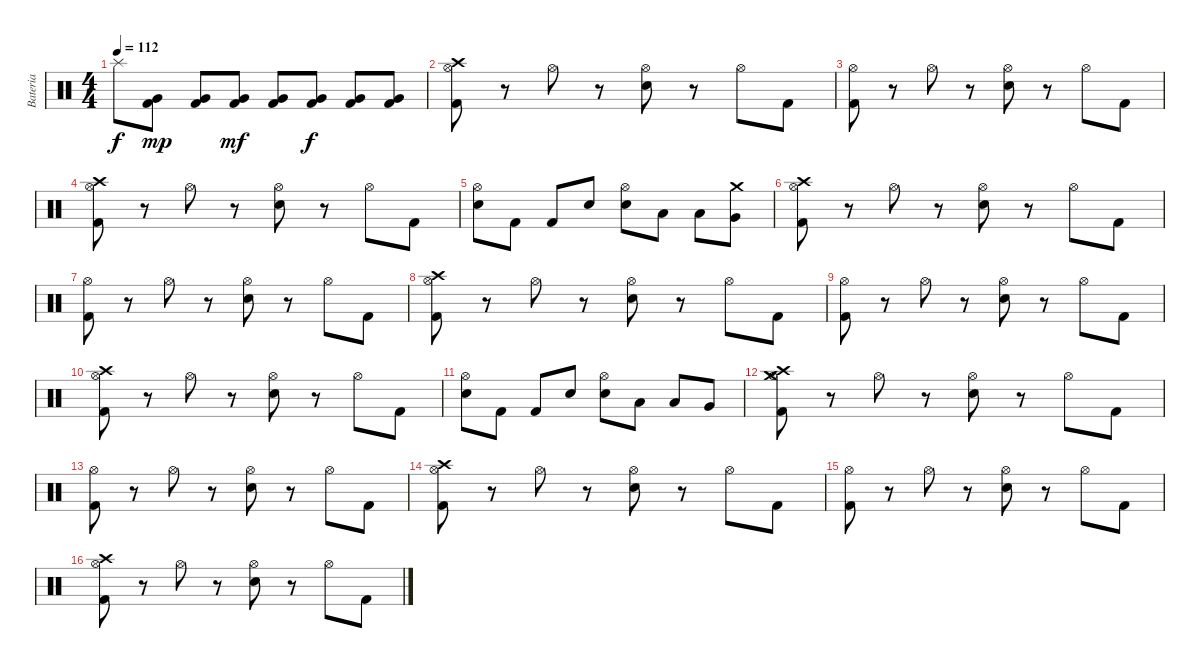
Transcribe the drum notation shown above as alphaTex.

\track ("Bateria" "Bateria") {instrument percussion}
\staff {score}
\articulation defaults
\ts (4 4)
\tempo 112
\clef neutral
\ks c "Splash (hit)".8{dy f}
("Very Low Tom (hit)" "Kick (hit) 2").8{dy mp} ("Very Low Tom (hit)" "Kick (hit) 2").8 ("Very Low Tom (hit)" "Kick (hit) 2").8{dy mf} ("Very Low Tom (hit)" "Kick (hit) 2").8 ("Very Low Tom (hit)" "Kick (hit) 2").8{dy f} ("Very Low Tom (hit)" "Kick (hit) 2").8 ("Very Low Tom (hit)" "Kick (hit) 2").8 |
("Hi-Hat (open)" "Kick (hit) 2" "Crash high (hit)").8 r.8 "Hi-Hat (open)".8 r.8 ("Hi-Hat (open)" "Snare (hit) 2").8 r.8 "Hi-Hat (open)".8 "Kick (hit) 2".8 |
("Hi-Hat (open)" "Kick (hit) 2").8 r.8 "Hi-Hat (open)".8 r.8 ("Hi-Hat (open)" "Snare (hit) 2").8 r.8 "Hi-Hat (open)".8 "Kick (hit) 2".8 |
("Hi-Hat (open)" "Kick (hit) 2" "Crash high (hit)").8 r.8 "Hi-Hat (open)".8 r.8 ("Hi-Hat (open)" "Snare (hit) 2").8 r.8 "Hi-Hat (open)".8 "Kick (hit) 2".8 |
("Hi-Hat (open)" "Snare (hit) 2").8 "Kick (hit) 2".8 "Kick (hit) 2".8 "Snare (hit) 2".8 ("Hi-Hat (open)" "Snare (hit) 2").8 "Low Tom (hit)".8 "Low Tom (hit)".8 ("Very Low Tom (hit)" "Crash medium (hit)").8 |
("Hi-Hat (open)" "Kick (hit) 2" "Crash high (hit)").8 r.8 "Hi-Hat (open)".8 r.8 ("Hi-Hat (open)" "Snare (hit) 2").8 r.8 "Hi-Hat (open)".8 "Kick (hit) 2".8 |
("Hi-Hat (open)" "Kick (hit) 2").8 r.8 "Hi-Hat (open)".8 r.8 ("Hi-Hat (open)" "Snare (hit) 2").8 r.8 "Hi-Hat (open)".8 "Kick (hit) 2".8 |
("Hi-Hat (open)" "Kick (hit) 2" "Crash high (hit)").8 r.8 "Hi-Hat (open)".8 r.8 ("Hi-Hat (open)" "Snare (hit) 2").8 r.8 "Hi-Hat (open)".8 "Kick (hit) 2".8 |
("Hi-Hat (open)" "Kick (hit) 2").8 r.8 "Hi-Hat (open)".8 r.8 ("Hi-Hat (open)" "Snare (hit) 2").8 r.8 "Hi-Hat (open)".8 "Kick (hit) 2".8 |
("Hi-Hat (open)" "Kick (hit) 2" "Crash high (hit)").8 r.8 "Hi-Hat (open)".8 r.8 ("Hi-Hat (open)" "Snare (hit) 2").8 r.8 "Hi-Hat (open)".8 "Kick (hit) 2".8 |
("Hi-Hat (open)" "Snare (hit) 2").8 "Kick (hit) 2".8 "Kick (hit) 2".8 "Snare (hit) 2".8 ("Hi-Hat (open)" "Snare (hit) 2").8 "Low Tom (hit)".8 "Low Tom (hit)".8 "Very Low Tom (hit)".8 |
("Hi-Hat (open)" "Kick (hit) 2" "Crash medium (hit)" "Crash high (hit)").8 r.8 "Hi-Hat (open)".8 r.8 ("Hi-Hat (open)" "Snare (hit) 2").8 r.8 "Hi-Hat (open)".8 "Kick (hit) 2".8 |
("Hi-Hat (open)" "Kick (hit) 2").8 r.8 "Hi-Hat (open)".8 r.8 ("Hi-Hat (open)" "Snare (hit) 2").8 r.8 "Hi-Hat (open)".8 "Kick (hit) 2".8 |
("Hi-Hat (open)" "Kick (hit) 2" "Crash high (hit)").8 r.8 "Hi-Hat (open)".8 r.8 ("Hi-Hat (open)" "Snare (hit) 2").8 r.8 "Hi-Hat (open)".8 "Kick (hit) 2".8 |
("Hi-Hat (open)" "Kick (hit) 2").8 r.8 "Hi-Hat (open)".8 r.8 ("Hi-Hat (open)" "Snare (hit) 2").8 r.8 "Hi-Hat (open)".8 "Kick (hit) 2".8 |
("Hi-Hat (open)" "Kick (hit) 2" "Crash high (hit)").8 r.8 "Hi-Hat (open)".8 r.8 ("Hi-Hat (open)" "Snare (hit) 2").8 r.8 "Hi-Hat (open)".8 "Kick (hit) 2".8
